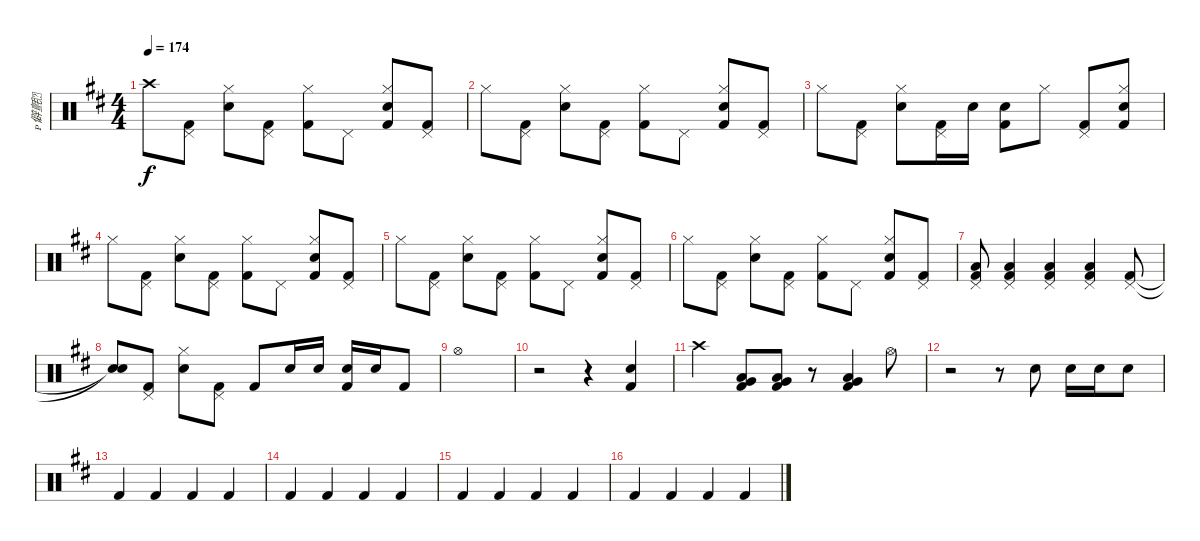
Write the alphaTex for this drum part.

\track ("僻氈" "僻氈") {instrument percussion}
\staff {score}
\articulation defaults
\ts (4 4)
\tempo 174
\clef neutral
\ks d "Crash high (hit)".8{dy f}
("Pedal Hi-Hat (hit)" "Kick (hit) 2").8 ("Hi-Hat (closed)" "Electric Snare (hit)").8 ("Pedal Hi-Hat (hit)" "Kick (hit) 2").8 ("Hi-Hat (closed)" "Kick (hit) 2").8 "Pedal Hi-Hat (hit)".8 ("Hi-Hat (closed)" "Electric Snare (hit)" "Kick (hit) 2").8 ("Pedal Hi-Hat (hit)" "Kick (hit) 2").8 |
"Hi-Hat (closed)".8 ("Pedal Hi-Hat (hit)" "Kick (hit) 2").8 ("Hi-Hat (closed)" "Electric Snare (hit)").8 ("Pedal Hi-Hat (hit)" "Kick (hit) 2").8 ("Hi-Hat (closed)" "Kick (hit) 2").8 "Pedal Hi-Hat (hit)".8 ("Hi-Hat (closed)" "Electric Snare (hit)" "Kick (hit) 2").8 ("Pedal Hi-Hat (hit)" "Kick (hit) 2").8 |
"Hi-Hat (closed)".8 ("Pedal Hi-Hat (hit)" "Kick (hit) 2").8 ("Hi-Hat (closed)" "Electric Snare (hit)").8 ("Pedal Hi-Hat (hit)" "Kick (hit) 2").16 "Electric Snare (hit)".16 ("Electric Snare (hit)" "Kick (hit) 2").8 "Hi-Hat (closed)".8 ("Pedal Hi-Hat (hit)" "Kick (hit) 2").8 ("Hi-Hat (closed)" "Electric Snare (hit)" "Kick (hit) 2").8 |
"Hi-Hat (closed)".8 ("Pedal Hi-Hat (hit)" "Kick (hit) 2").8 ("Hi-Hat (closed)" "Electric Snare (hit)").8 ("Pedal Hi-Hat (hit)" "Kick (hit) 2").8 ("Hi-Hat (closed)" "Kick (hit) 2").8 "Pedal Hi-Hat (hit)".8 ("Hi-Hat (closed)" "Electric Snare (hit)" "Kick (hit) 2").8 ("Pedal Hi-Hat (hit)" "Kick (hit) 2").8 |
"Hi-Hat (closed)".8 ("Pedal Hi-Hat (hit)" "Kick (hit) 2").8 ("Hi-Hat (closed)" "Electric Snare (hit)").8 ("Pedal Hi-Hat (hit)" "Kick (hit) 2").8 ("Hi-Hat (closed)" "Kick (hit) 2").8 "Pedal Hi-Hat (hit)".8 ("Hi-Hat (closed)" "Electric Snare (hit)" "Kick (hit) 2").8 ("Pedal Hi-Hat (hit)" "Kick (hit) 2").8 |
"Hi-Hat (closed)".8 ("Pedal Hi-Hat (hit)" "Kick (hit) 2").8 ("Hi-Hat (closed)" "Electric Snare (hit)").8 ("Pedal Hi-Hat (hit)" "Kick (hit) 2").8 ("Hi-Hat (closed)" "Kick (hit) 2").8 "Pedal Hi-Hat (hit)".8 ("Hi-Hat (closed)" "Electric Snare (hit)" "Kick (hit) 2").8 ("Pedal Hi-Hat (hit)" "Kick (hit) 2").8 |
("Pedal Hi-Hat (hit)" "Low Tom (hit)" "Kick (hit) 2").8 ("Pedal Hi-Hat (hit)" "Low Tom (hit)" "Kick (hit) 2").4 ("Pedal Hi-Hat (hit)" "Low Tom (hit)" "Kick (hit) 2").4 ("Pedal Hi-Hat (hit)" "Low Tom (hit)" "Kick (hit) 2").4 ("Pedal Hi-Hat (hit)" "Kick (hit) 2").8 |
("Snare (hit)"{t} "Snare (hit)"{t}).8 ("Pedal Hi-Hat (hit)" "Kick (hit) 2").8 ("Hi-Hat (closed)" "Electric Snare (hit)").8 ("Pedal Hi-Hat (hit)" "Kick (hit) 2").8 "Kick (hit) 2".8 "Electric Snare (hit)".16 "Electric Snare (hit)".16 ("Electric Snare (hit)" "Kick (hit) 2").16 "Electric Snare (hit)".16 "Kick (hit) 2".8 |
"Hi-Hat (open)".1 |
r.2 r.4 ("Electric Snare (hit)" "Kick (hit) 2").4 |
"Crash high (hit)".4 ("Low Tom (hit)" "Very Low Tom (hit)" "Kick (hit) 2").8 ("Low Tom (hit)" "Very Low Tom (hit)" "Kick (hit) 2").8 r.8 ("Low Tom (hit)" "Very Low Tom (hit)" "Kick (hit) 2").4 "Hi-Hat (open)".8 |
r.2 r.8 "Electric Snare (hit)".8 "Electric Snare (hit)".16 "Electric Snare (hit)".16 "Electric Snare (hit)".8 |
"Kick (hit) 2".4 "Kick (hit) 2".4 "Kick (hit) 2".4 "Kick (hit) 2".4 |
"Kick (hit) 2".4 "Kick (hit) 2".4 "Kick (hit) 2".4 "Kick (hit) 2".4 |
"Kick (hit) 2".4 "Kick (hit) 2".4 "Kick (hit) 2".4 "Kick (hit) 2".4 |
"Kick (hit) 2".4 "Kick (hit) 2".4 "Kick (hit) 2".4 "Kick (hit) 2".4
